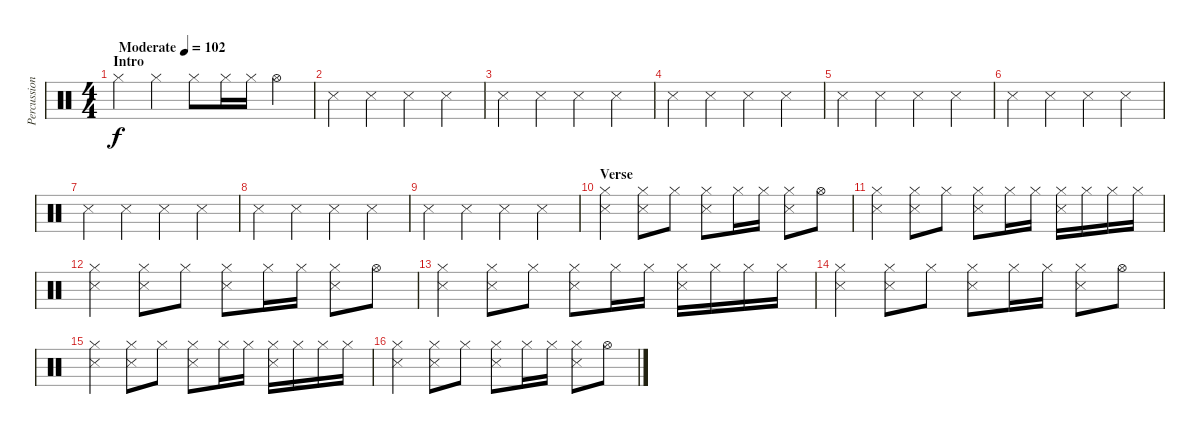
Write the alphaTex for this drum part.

\track ("Percussion" "Percussion") {instrument percussion}
\staff {score}
\articulation defaults
\ts (4 4)
\section ("" "Intro")
\tempo (102 "Moderate")
\clef neutral
\ks c "Hi-Hat (closed)".4{dy f} "Hi-Hat (closed)".4 "Hi-Hat (closed)".8 "Hi-Hat (closed)".16 "Hi-Hat (closed)".16 "Hi-Hat (open)".4
|
"Snare (side stick) 3".4 "Snare (side stick) 3".4 "Snare (side stick) 3".4 "Snare (side stick) 3".4 |
"Snare (side stick) 3".4 "Snare (side stick) 3".4 "Snare (side stick) 3".4 "Snare (side stick) 3".4 |
"Snare (side stick) 3".4 "Snare (side stick) 3".4 "Snare (side stick) 3".4 "Snare (side stick) 3".4 |
"Snare (side stick) 3".4 "Snare (side stick) 3".4 "Snare (side stick) 3".4 "Snare (side stick) 3".4 |
"Snare (side stick) 3".4 "Snare (side stick) 3".4 "Snare (side stick) 3".4 "Snare (side stick) 3".4 |
"Snare (side stick) 3".4 "Snare (side stick) 3".4 "Snare (side stick) 3".4 "Snare (side stick) 3".4 |
"Snare (side stick) 3".4 "Snare (side stick) 3".4 "Snare (side stick) 3".4 "Snare (side stick) 3".4 |
"Snare (side stick) 3".4 "Snare (side stick) 3".4 "Snare (side stick) 3".4 "Snare (side stick) 3".4 |
\section ("" "Verse")
("Snare (side stick) 3" "Hi-Hat (closed)").4 ("Snare (side stick) 3" "Hi-Hat (closed)").8 "Hi-Hat (closed)".8 ("Snare (side stick) 3" "Hi-Hat (closed)").8 "Hi-Hat (closed)".16 "Hi-Hat (closed)".16 ("Snare (side stick) 3" "Hi-Hat (closed)").8 "Hi-Hat (open)".8 |
("Snare (side stick) 3" "Hi-Hat (closed)").4 ("Snare (side stick) 3" "Hi-Hat (closed)").8 "Hi-Hat (closed)".8 ("Snare (side stick) 3" "Hi-Hat (closed)").8 "Hi-Hat (closed)".16 "Hi-Hat (closed)".16 ("Snare (side stick) 3" "Hi-Hat (closed)").16 "Hi-Hat (closed)".16 "Hi-Hat (closed)".16 "Hi-Hat (closed)".16 |
("Snare (side stick) 3" "Hi-Hat (closed)").4 ("Snare (side stick) 3" "Hi-Hat (closed)").8 "Hi-Hat (closed)".8 ("Snare (side stick) 3" "Hi-Hat (closed)").8 "Hi-Hat (closed)".16 "Hi-Hat (closed)".16 ("Snare (side stick) 3" "Hi-Hat (closed)").8 "Hi-Hat (open)".8 |
("Snare (side stick) 3" "Hi-Hat (closed)").4 ("Snare (side stick) 3" "Hi-Hat (closed)").8 "Hi-Hat (closed)".8 ("Snare (side stick) 3" "Hi-Hat (closed)").8 "Hi-Hat (closed)".16 "Hi-Hat (closed)".16 ("Snare (side stick) 3" "Hi-Hat (closed)").16 "Hi-Hat (closed)".16 "Hi-Hat (closed)".16 "Hi-Hat (closed)".16 |
("Snare (side stick) 3" "Hi-Hat (closed)").4 ("Snare (side stick) 3" "Hi-Hat (closed)").8 "Hi-Hat (closed)".8 ("Snare (side stick) 3" "Hi-Hat (closed)").8 "Hi-Hat (closed)".16 "Hi-Hat (closed)".16 ("Snare (side stick) 3" "Hi-Hat (closed)").8 "Hi-Hat (open)".8 |
("Snare (side stick) 3" "Hi-Hat (closed)").4 ("Snare (side stick) 3" "Hi-Hat (closed)").8 "Hi-Hat (closed)".8 ("Snare (side stick) 3" "Hi-Hat (closed)").8 "Hi-Hat (closed)".16 "Hi-Hat (closed)".16 ("Snare (side stick) 3" "Hi-Hat (closed)").16 "Hi-Hat (closed)".16 "Hi-Hat (closed)".16 "Hi-Hat (closed)".16 |
("Snare (side stick) 3" "Hi-Hat (closed)").4 ("Snare (side stick) 3" "Hi-Hat (closed)").8 "Hi-Hat (closed)".8 ("Snare (side stick) 3" "Hi-Hat (closed)").8 "Hi-Hat (closed)".16 "Hi-Hat (closed)".16 ("Snare (side stick) 3" "Hi-Hat (closed)").8 "Hi-Hat (open)".8
